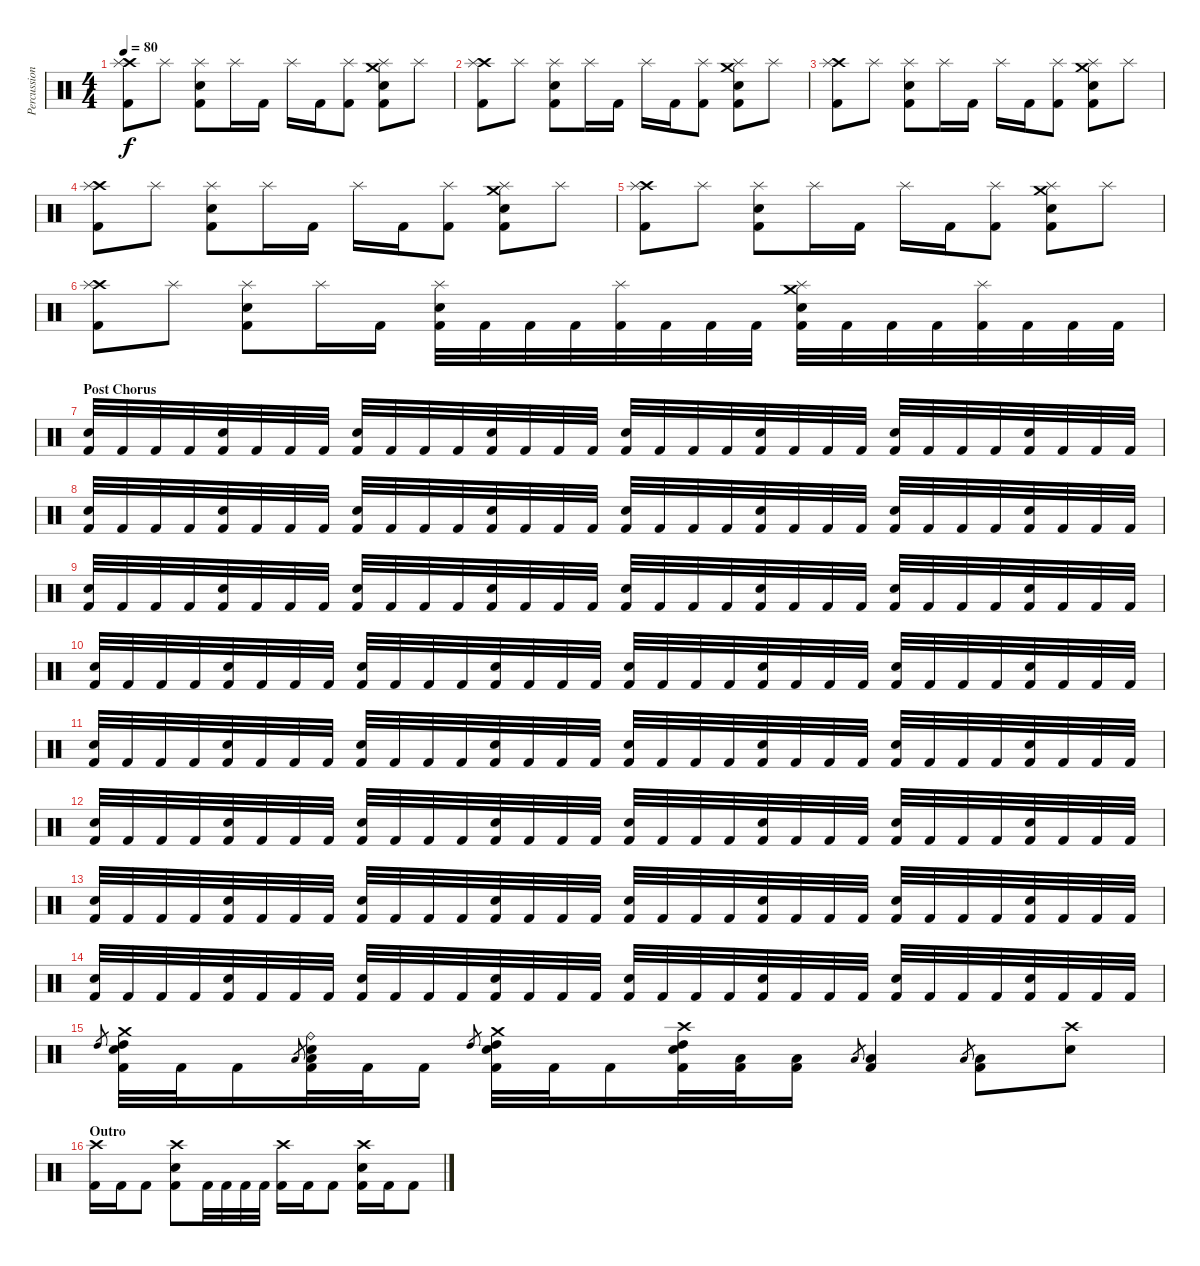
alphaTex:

\track ("Percussion" "Percussion") {instrument percussion}
\staff {score}
\articulation defaults
\ts (4 4)
\tempo 80
\clef neutral
\ks c
("Crash high (hit)" "Splash (hit)" "Kick (hit) 2").8{dy f} "Splash (hit)".8 ("Splash (hit)" "Electric Snare (hit)" "Kick (hit) 2").8 "Splash (hit)".16 "Kick (hit) 2".16 "Splash (hit)".16 "Kick (hit) 2".16 ("Splash (hit)" "Kick (hit) 2").8 ("Crash medium (hit)" "Splash (hit)" "Electric Snare (hit)" "Kick (hit) 2").8 "Splash (hit)".8 |
("Crash high (hit)" "Splash (hit)" "Kick (hit) 2").8 "Splash (hit)".8 ("Splash (hit)" "Electric Snare (hit)" "Kick (hit) 2").8 "Splash (hit)".16 "Kick (hit) 2".16 "Splash (hit)".16 "Kick (hit) 2".16 ("Splash (hit)" "Kick (hit) 2").8 ("Crash medium (hit)" "Splash (hit)" "Electric Snare (hit)" "Kick (hit) 2").8 "Splash (hit)".8 |
("Crash high (hit)" "Splash (hit)" "Kick (hit) 2").8 "Splash (hit)".8 ("Splash (hit)" "Electric Snare (hit)" "Kick (hit) 2").8 "Splash (hit)".16 "Kick (hit) 2".16 "Splash (hit)".16 "Kick (hit) 2".16 ("Splash (hit)" "Kick (hit) 2").8 ("Crash medium (hit)" "Splash (hit)" "Electric Snare (hit)" "Kick (hit) 2").8 "Splash (hit)".8 |
("Crash high (hit)" "Splash (hit)" "Kick (hit) 2").8 "Splash (hit)".8 ("Splash (hit)" "Electric Snare (hit)" "Kick (hit) 2").8 "Splash (hit)".16 "Kick (hit) 2".16 "Splash (hit)".16 "Kick (hit) 2".16 ("Splash (hit)" "Kick (hit) 2").8 ("Crash medium (hit)" "Splash (hit)" "Electric Snare (hit)" "Kick (hit) 2").8 "Splash (hit)".8 |
("Crash high (hit)" "Splash (hit)" "Kick (hit) 2").8 "Splash (hit)".8 ("Splash (hit)" "Electric Snare (hit)" "Kick (hit) 2").8 "Splash (hit)".16 "Kick (hit) 2".16 "Splash (hit)".16 "Kick (hit) 2".16 ("Splash (hit)" "Kick (hit) 2").8 ("Crash medium (hit)" "Splash (hit)" "Electric Snare (hit)" "Kick (hit) 2").8 "Splash (hit)".8 |
("Crash high (hit)" "Splash (hit)" "Kick (hit) 2").8 "Splash (hit)".8 ("Splash (hit)" "Electric Snare (hit)" "Kick (hit) 2").8 "Splash (hit)".16 "Kick (hit) 2".16 ("Splash (hit)" "Electric Snare (hit)" "Kick (hit) 2").32 "Kick (hit) 2".32 "Kick (hit) 2".32 "Kick (hit) 2".32 ("Splash (hit)" "Kick (hit) 2").32 "Kick (hit) 2".32 "Kick (hit) 2".32 "Kick (hit) 2".32 ("Crash medium (hit)" "Splash (hit)" "Electric Snare (hit)" "Kick (hit) 2").32 "Kick (hit) 2".32 "Kick (hit) 2".32 "Kick (hit) 2".32 ("Splash (hit)" "Kick (hit) 2").32 "Kick (hit) 2".32 "Kick (hit) 2".32 "Kick (hit) 2".32 |
\section ("" "Post Chorus")
("Electric Snare (hit)" "Kick (hit) 2").32 "Kick (hit) 2".32 "Kick (hit) 2".32 "Kick (hit) 2".32 ("Electric Snare (hit)" "Kick (hit) 2").32 "Kick (hit) 2".32 "Kick (hit) 2".32 "Kick (hit) 2".32 ("Electric Snare (hit)" "Kick (hit) 2").32 "Kick (hit) 2".32 "Kick (hit) 2".32 "Kick (hit) 2".32 ("Electric Snare (hit)" "Kick (hit) 2").32 "Kick (hit) 2".32 "Kick (hit) 2".32 "Kick (hit) 2".32 ("Electric Snare (hit)" "Kick (hit) 2").32 "Kick (hit) 2".32 "Kick (hit) 2".32 "Kick (hit) 2".32 ("Electric Snare (hit)" "Kick (hit) 2").32 "Kick (hit) 2".32 "Kick (hit) 2".32 "Kick (hit) 2".32 ("Electric Snare (hit)" "Kick (hit) 2").32 "Kick (hit) 2".32 "Kick (hit) 2".32 "Kick (hit) 2".32 ("Electric Snare (hit)" "Kick (hit) 2").32 "Kick (hit) 2".32 "Kick (hit) 2".32 "Kick (hit) 2".32 |
("Electric Snare (hit)" "Kick (hit) 2").32 "Kick (hit) 2".32 "Kick (hit) 2".32 "Kick (hit) 2".32 ("Electric Snare (hit)" "Kick (hit) 2").32 "Kick (hit) 2".32 "Kick (hit) 2".32 "Kick (hit) 2".32 ("Electric Snare (hit)" "Kick (hit) 2").32 "Kick (hit) 2".32 "Kick (hit) 2".32 "Kick (hit) 2".32 ("Electric Snare (hit)" "Kick (hit) 2").32 "Kick (hit) 2".32 "Kick (hit) 2".32 "Kick (hit) 2".32 ("Electric Snare (hit)" "Kick (hit) 2").32 "Kick (hit) 2".32 "Kick (hit) 2".32 "Kick (hit) 2".32 ("Electric Snare (hit)" "Kick (hit) 2").32 "Kick (hit) 2".32 "Kick (hit) 2".32 "Kick (hit) 2".32 ("Electric Snare (hit)" "Kick (hit) 2").32 "Kick (hit) 2".32 "Kick (hit) 2".32 "Kick (hit) 2".32 ("Electric Snare (hit)" "Kick (hit) 2").32 "Kick (hit) 2".32 "Kick (hit) 2".32 "Kick (hit) 2".32 |
("Electric Snare (hit)" "Kick (hit) 2").32 "Kick (hit) 2".32 "Kick (hit) 2".32 "Kick (hit) 2".32 ("Electric Snare (hit)" "Kick (hit) 2").32 "Kick (hit) 2".32 "Kick (hit) 2".32 "Kick (hit) 2".32 ("Electric Snare (hit)" "Kick (hit) 2").32 "Kick (hit) 2".32 "Kick (hit) 2".32 "Kick (hit) 2".32 ("Electric Snare (hit)" "Kick (hit) 2").32 "Kick (hit) 2".32 "Kick (hit) 2".32 "Kick (hit) 2".32 ("Electric Snare (hit)" "Kick (hit) 2").32 "Kick (hit) 2".32 "Kick (hit) 2".32 "Kick (hit) 2".32 ("Electric Snare (hit)" "Kick (hit) 2").32 "Kick (hit) 2".32 "Kick (hit) 2".32 "Kick (hit) 2".32 ("Electric Snare (hit)" "Kick (hit) 2").32 "Kick (hit) 2".32 "Kick (hit) 2".32 "Kick (hit) 2".32 ("Electric Snare (hit)" "Kick (hit) 2").32 "Kick (hit) 2".32 "Kick (hit) 2".32 "Kick (hit) 2".32 |
("Electric Snare (hit)" "Kick (hit) 2").32 "Kick (hit) 2".32 "Kick (hit) 2".32 "Kick (hit) 2".32 ("Electric Snare (hit)" "Kick (hit) 2").32 "Kick (hit) 2".32 "Kick (hit) 2".32 "Kick (hit) 2".32 ("Electric Snare (hit)" "Kick (hit) 2").32 "Kick (hit) 2".32 "Kick (hit) 2".32 "Kick (hit) 2".32 ("Electric Snare (hit)" "Kick (hit) 2").32 "Kick (hit) 2".32 "Kick (hit) 2".32 "Kick (hit) 2".32 ("Electric Snare (hit)" "Kick (hit) 2").32 "Kick (hit) 2".32 "Kick (hit) 2".32 "Kick (hit) 2".32 ("Electric Snare (hit)" "Kick (hit) 2").32 "Kick (hit) 2".32 "Kick (hit) 2".32 "Kick (hit) 2".32 ("Electric Snare (hit)" "Kick (hit) 2").32 "Kick (hit) 2".32 "Kick (hit) 2".32 "Kick (hit) 2".32 ("Electric Snare (hit)" "Kick (hit) 2").32 "Kick (hit) 2".32 "Kick (hit) 2".32 "Kick (hit) 2".32 |
("Electric Snare (hit)" "Kick (hit) 2").32 "Kick (hit) 2".32 "Kick (hit) 2".32 "Kick (hit) 2".32 ("Electric Snare (hit)" "Kick (hit) 2").32 "Kick (hit) 2".32 "Kick (hit) 2".32 "Kick (hit) 2".32 ("Electric Snare (hit)" "Kick (hit) 2").32 "Kick (hit) 2".32 "Kick (hit) 2".32 "Kick (hit) 2".32 ("Electric Snare (hit)" "Kick (hit) 2").32 "Kick (hit) 2".32 "Kick (hit) 2".32 "Kick (hit) 2".32 ("Electric Snare (hit)" "Kick (hit) 2").32 "Kick (hit) 2".32 "Kick (hit) 2".32 "Kick (hit) 2".32 ("Electric Snare (hit)" "Kick (hit) 2").32 "Kick (hit) 2".32 "Kick (hit) 2".32 "Kick (hit) 2".32 ("Electric Snare (hit)" "Kick (hit) 2").32 "Kick (hit) 2".32 "Kick (hit) 2".32 "Kick (hit) 2".32 ("Electric Snare (hit)" "Kick (hit) 2").32 "Kick (hit) 2".32 "Kick (hit) 2".32 "Kick (hit) 2".32 |
("Electric Snare (hit)" "Kick (hit) 2").32 "Kick (hit) 2".32 "Kick (hit) 2".32 "Kick (hit) 2".32 ("Electric Snare (hit)" "Kick (hit) 2").32 "Kick (hit) 2".32 "Kick (hit) 2".32 "Kick (hit) 2".32 ("Electric Snare (hit)" "Kick (hit) 2").32 "Kick (hit) 2".32 "Kick (hit) 2".32 "Kick (hit) 2".32 ("Electric Snare (hit)" "Kick (hit) 2").32 "Kick (hit) 2".32 "Kick (hit) 2".32 "Kick (hit) 2".32 ("Electric Snare (hit)" "Kick (hit) 2").32 "Kick (hit) 2".32 "Kick (hit) 2".32 "Kick (hit) 2".32 ("Electric Snare (hit)" "Kick (hit) 2").32 "Kick (hit) 2".32 "Kick (hit) 2".32 "Kick (hit) 2".32 ("Electric Snare (hit)" "Kick (hit) 2").32 "Kick (hit) 2".32 "Kick (hit) 2".32 "Kick (hit) 2".32 ("Electric Snare (hit)" "Kick (hit) 2").32 "Kick (hit) 2".32 "Kick (hit) 2".32 "Kick (hit) 2".32 |
("Electric Snare (hit)" "Kick (hit) 2").32 "Kick (hit) 2".32 "Kick (hit) 2".32 "Kick (hit) 2".32 ("Electric Snare (hit)" "Kick (hit) 2").32 "Kick (hit) 2".32 "Kick (hit) 2".32 "Kick (hit) 2".32 ("Electric Snare (hit)" "Kick (hit) 2").32 "Kick (hit) 2".32 "Kick (hit) 2".32 "Kick (hit) 2".32 ("Electric Snare (hit)" "Kick (hit) 2").32 "Kick (hit) 2".32 "Kick (hit) 2".32 "Kick (hit) 2".32 ("Electric Snare (hit)" "Kick (hit) 2").32 "Kick (hit) 2".32 "Kick (hit) 2".32 "Kick (hit) 2".32 ("Electric Snare (hit)" "Kick (hit) 2").32 "Kick (hit) 2".32 "Kick (hit) 2".32 "Kick (hit) 2".32 ("Electric Snare (hit)" "Kick (hit) 2").32 "Kick (hit) 2".32 "Kick (hit) 2".32 "Kick (hit) 2".32 ("Electric Snare (hit)" "Kick (hit) 2").32 "Kick (hit) 2".32 "Kick (hit) 2".32 "Kick (hit) 2".32 |
("Electric Snare (hit)" "Kick (hit) 2").32 "Kick (hit) 2".32 "Kick (hit) 2".32 "Kick (hit) 2".32 ("Electric Snare (hit)" "Kick (hit) 2").32 "Kick (hit) 2".32 "Kick (hit) 2".32 "Kick (hit) 2".32 ("Electric Snare (hit)" "Kick (hit) 2").32 "Kick (hit) 2".32 "Kick (hit) 2".32 "Kick (hit) 2".32 ("Electric Snare (hit)" "Kick (hit) 2").32 "Kick (hit) 2".32 "Kick (hit) 2".32 "Kick (hit) 2".32 ("Electric Snare (hit)" "Kick (hit) 2").32 "Kick (hit) 2".32 "Kick (hit) 2".32 "Kick (hit) 2".32 ("Electric Snare (hit)" "Kick (hit) 2").32 "Kick (hit) 2".32 "Kick (hit) 2".32 "Kick (hit) 2".32 ("Electric Snare (hit)" "Kick (hit) 2").32 "Kick (hit) 2".32 "Kick (hit) 2".32 "Kick (hit) 2".32 ("Electric Snare (hit)" "Kick (hit) 2").32 "Kick (hit) 2".32 "Kick (hit) 2".32 "Kick (hit) 2".32 |
"High Tom (hit)".8{gr} ("Crash medium (hit)" "High Tom (hit)" "Electric Snare (hit)" "Kick (hit) 2").32 "Kick (hit) 2".32 "Kick (hit) 2".16 "Low Tom (hit)".8{gr} ("Ride (bell)" "Low Tom (hit)" "Electric Snare (hit)" "Kick (hit) 2").32 "Kick (hit) 2".32 "Kick (hit) 2".16 "High Tom (hit)".8{gr} ("Crash medium (hit)" "High Tom (hit)" "Electric Snare (hit)" "Kick (hit) 2").32 "Kick (hit) 2".32 "Kick (hit) 2".16 ("Crash high (hit)" "High Tom (hit)" "Electric Snare (hit)" "Kick (hit) 2").32 ("Low Tom (hit)" "Kick (hit) 2").32 ("Low Tom (hit)" "Kick (hit) 2").16 "Low Tom (hit)".8{gr} ("Low Tom (hit)" "Kick (hit) 2").4 "Low Tom (hit)".8{gr} ("Low Tom (hit)" "Kick (hit) 2").8 ("Crash high (hit)" "Electric Snare (hit)").8 |
\section ("" "Outro")
("Crash high (hit)" "Kick (hit) 2").16 "Kick (hit) 2".16 "Kick (hit) 2".8 ("Crash high (hit)" "Electric Snare (hit)" "Kick (hit) 2").8 "Kick (hit) 2".32 "Kick (hit) 2".32 "Kick (hit) 2".32 "Kick (hit) 2".32 ("Crash high (hit)" "Kick (hit) 2").16 "Kick (hit) 2".16 "Kick (hit) 2".8 ("Crash high (hit)" "Electric Snare (hit)" "Kick (hit) 2").16 "Kick (hit) 2".16 "Kick (hit) 2".8
